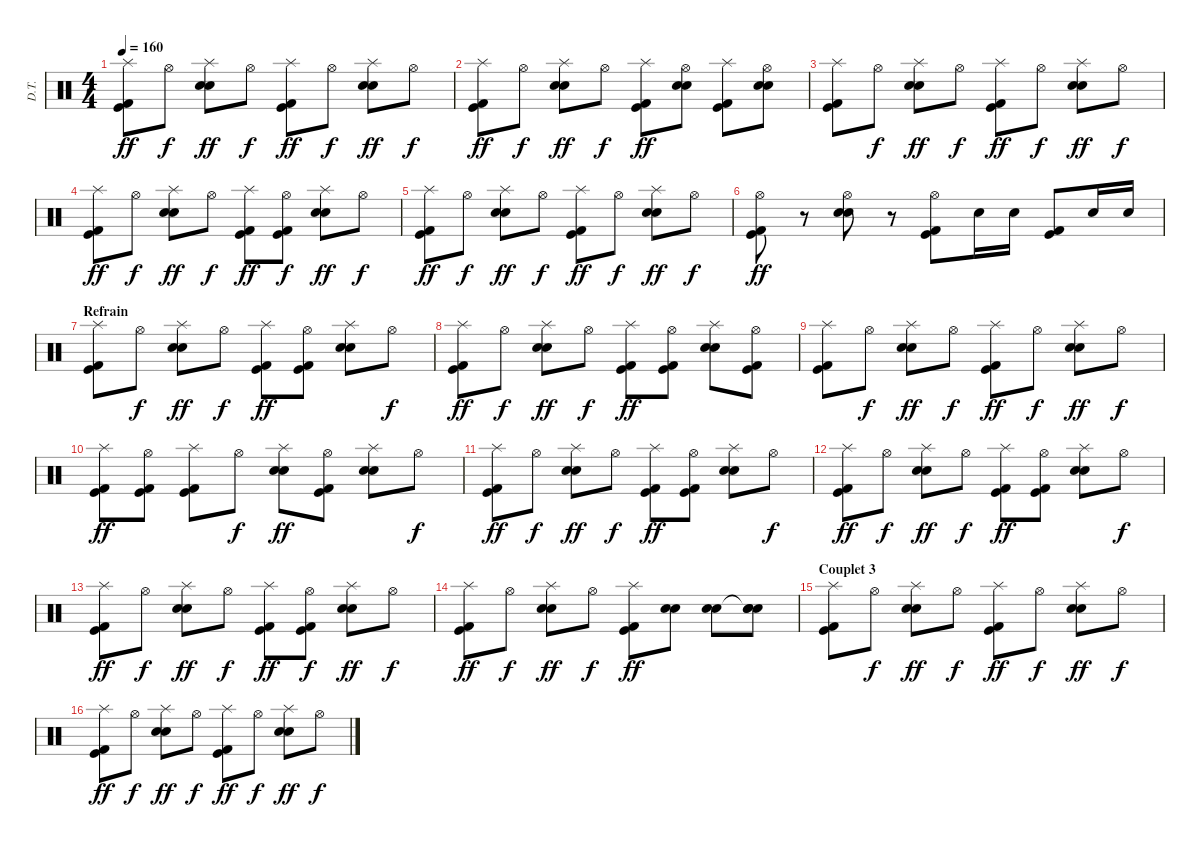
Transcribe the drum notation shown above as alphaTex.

\track ("D.T." "D.T.") {instrument percussion}
\staff {score}
\articulation defaults
\ts (4 4)
\tempo 160
\clef neutral
\ks c
("Splash (hit)" "Kick (hit)" "Kick (hit) 2").8{dy ff} "Hi-Hat (open)".8{dy f} ("Splash (hit)" "Snare (hit) 2" "Electric Snare (hit)").8{dy ff} "Hi-Hat (open)".8{dy f} ("Splash (hit)" "Kick (hit)" "Kick (hit) 2").8{dy ff} "Hi-Hat (open)".8{dy f} ("Splash (hit)" "Snare (hit) 2" "Electric Snare (hit)").8{dy ff} "Hi-Hat (open)".8{dy f} |
("Splash (hit)" "Kick (hit)" "Kick (hit) 2").8{dy ff} "Hi-Hat (open)".8{dy f} ("Splash (hit)" "Snare (hit) 2" "Electric Snare (hit)").8{dy ff} "Hi-Hat (open)".8{dy f} ("Splash (hit)" "Kick (hit)" "Kick (hit) 2").8{dy ff} ("Hi-Hat (open)" "Snare (hit) 2" "Electric Snare (hit)").8 ("Splash (hit)" "Kick (hit)" "Kick (hit) 2").8 ("Hi-Hat (open)" "Snare (hit) 2" "Electric Snare (hit)").8 |
("Splash (hit)" "Kick (hit)" "Kick (hit) 2").8 "Hi-Hat (open)".8{dy f} ("Splash (hit)" "Snare (hit) 2" "Electric Snare (hit)").8{dy ff} "Hi-Hat (open)".8{dy f} ("Splash (hit)" "Kick (hit)" "Kick (hit) 2").8{dy ff} "Hi-Hat (open)".8{dy f} ("Splash (hit)" "Snare (hit) 2" "Electric Snare (hit)").8{dy ff} "Hi-Hat (open)".8{dy f} |
("Splash (hit)" "Kick (hit)" "Kick (hit) 2").8{dy ff} "Hi-Hat (open)".8{dy f} ("Splash (hit)" "Snare (hit) 2" "Electric Snare (hit)").8{dy ff} "Hi-Hat (open)".8{dy f} ("Splash (hit)" "Kick (hit)" "Kick (hit) 2").8{dy ff} ("Hi-Hat (open)" "Kick (hit)" "Kick (hit) 2").8{dy f} ("Splash (hit)" "Snare (hit) 2" "Electric Snare (hit)").8{dy ff} "Hi-Hat (open)".8{dy f} |
("Splash (hit)" "Kick (hit)" "Kick (hit) 2").8{dy ff} "Hi-Hat (open)".8{dy f} ("Splash (hit)" "Snare (hit) 2" "Electric Snare (hit)").8{dy ff} "Hi-Hat (open)".8{dy f} ("Splash (hit)" "Kick (hit)" "Kick (hit) 2").8{dy ff} "Hi-Hat (open)".8{dy f} ("Splash (hit)" "Snare (hit) 2" "Electric Snare (hit)").8{dy ff} "Hi-Hat (open)".8{dy f} |
("Hi-Hat (open)" "Kick (hit)" "Kick (hit) 2").8{dy ff} r.8 ("Hi-Hat (open)" "Snare (hit) 2" "Electric Snare (hit)").8 r.8 ("Hi-Hat (open)" "Kick (hit)" "Kick (hit) 2").8 "Electric Snare (hit)".16 "Electric Snare (hit)".16 ("Kick (hit)" "Kick (hit) 2").8 "Electric Snare (hit)".16 "Electric Snare (hit)".16 |
\section ("" "Refrain")
("Splash (hit)" "Kick (hit)" "Kick (hit) 2").8 "Hi-Hat (open)".8{dy f} ("Splash (hit)" "Snare (hit) 2" "Electric Snare (hit)").8{dy ff} "Hi-Hat (open)".8{dy f} ("Splash (hit)" "Kick (hit)" "Kick (hit) 2").8{dy ff} ("Hi-Hat (open)" "Kick (hit)" "Kick (hit) 2").8 ("Splash (hit)" "Snare (hit) 2" "Electric Snare (hit)").8 "Hi-Hat (open)".8{dy f} |
("Splash (hit)" "Kick (hit)" "Kick (hit) 2").8{dy ff} "Hi-Hat (open)".8{dy f} ("Splash (hit)" "Snare (hit) 2" "Electric Snare (hit)").8{dy ff} "Hi-Hat (open)".8{dy f} ("Splash (hit)" "Kick (hit)" "Kick (hit) 2").8{dy ff} ("Hi-Hat (open)" "Kick (hit)" "Kick (hit) 2").8 ("Splash (hit)" "Snare (hit) 2" "Electric Snare (hit)").8 ("Hi-Hat (open)" "Kick (hit)" "Kick (hit) 2").8 |
("Splash (hit)" "Kick (hit)" "Kick (hit) 2").8 "Hi-Hat (open)".8{dy f} ("Splash (hit)" "Snare (hit) 2" "Electric Snare (hit)").8{dy ff} "Hi-Hat (open)".8{dy f} ("Splash (hit)" "Kick (hit)" "Kick (hit) 2").8{dy ff} "Hi-Hat (open)".8{dy f} ("Splash (hit)" "Snare (hit) 2" "Electric Snare (hit)").8{dy ff} "Hi-Hat (open)".8{dy f} |
("Splash (hit)" "Kick (hit)" "Kick (hit) 2").8{dy ff} ("Hi-Hat (open)" "Kick (hit)" "Kick (hit) 2").8 ("Splash (hit)" "Kick (hit)" "Kick (hit) 2").8 "Hi-Hat (open)".8{dy f} ("Splash (hit)" "Snare (hit) 2" "Electric Snare (hit)").8{dy ff} ("Hi-Hat (open)" "Kick (hit)" "Kick (hit) 2").8 ("Splash (hit)" "Snare (hit) 2" "Electric Snare (hit)").8 "Hi-Hat (open)".8{dy f} |
("Splash (hit)" "Kick (hit)" "Kick (hit) 2").8{dy ff} "Hi-Hat (open)".8{dy f} ("Splash (hit)" "Snare (hit) 2" "Electric Snare (hit)").8{dy ff} "Hi-Hat (open)".8{dy f} ("Splash (hit)" "Kick (hit)" "Kick (hit) 2").8{dy ff} ("Hi-Hat (open)" "Kick (hit)" "Kick (hit) 2").8 ("Splash (hit)" "Snare (hit) 2" "Electric Snare (hit)").8 "Hi-Hat (open)".8{dy f} |
("Splash (hit)" "Kick (hit)" "Kick (hit) 2").8{dy ff} "Hi-Hat (open)".8{dy f} ("Splash (hit)" "Snare (hit) 2" "Electric Snare (hit)").8{dy ff} "Hi-Hat (open)".8{dy f} ("Splash (hit)" "Kick (hit)" "Kick (hit) 2").8{dy ff} ("Hi-Hat (open)" "Kick (hit)" "Kick (hit) 2").8 ("Splash (hit)" "Snare (hit) 2" "Electric Snare (hit)").8 "Hi-Hat (open)".8{dy f} |
("Splash (hit)" "Kick (hit)" "Kick (hit) 2").8{dy ff} "Hi-Hat (open)".8{dy f} ("Splash (hit)" "Snare (hit) 2" "Electric Snare (hit)").8{dy ff} "Hi-Hat (open)".8{dy f} ("Splash (hit)" "Kick (hit)" "Kick (hit) 2").8{dy ff} ("Hi-Hat (open)" "Kick (hit)" "Kick (hit) 2").8{dy f} ("Splash (hit)" "Snare (hit) 2" "Electric Snare (hit)").8{dy ff} "Hi-Hat (open)".8{dy f} |
("Splash (hit)" "Kick (hit)" "Kick (hit) 2").8{dy ff} "Hi-Hat (open)".8{dy f} ("Splash (hit)" "Snare (hit) 2" "Electric Snare (hit)").8{dy ff} "Hi-Hat (open)".8{dy f} ("Splash (hit)" "Kick (hit)" "Kick (hit) 2").8{dy ff} ("Snare (hit) 2" "Electric Snare (hit)").8 ("Snare (hit) 2" "Electric Snare (hit)").8 ("Snare (hit)"{t} "Snare (hit) 2" "Electric Snare (hit)").8 |
\section ("" "Couplet 3")
("Splash (hit)" "Kick (hit)" "Kick (hit) 2").8 "Hi-Hat (open)".8{dy f} ("Splash (hit)" "Snare (hit) 2" "Electric Snare (hit)").8{dy ff} "Hi-Hat (open)".8{dy f} ("Splash (hit)" "Kick (hit)" "Kick (hit) 2").8{dy ff} "Hi-Hat (open)".8{dy f} ("Splash (hit)" "Snare (hit) 2" "Electric Snare (hit)").8{dy ff} "Hi-Hat (open)".8{dy f} |
("Splash (hit)" "Kick (hit)" "Kick (hit) 2").8{dy ff} "Hi-Hat (open)".8{dy f} ("Splash (hit)" "Snare (hit) 2" "Electric Snare (hit)").8{dy ff} "Hi-Hat (open)".8{dy f} ("Splash (hit)" "Kick (hit)" "Kick (hit) 2").8{dy ff} "Hi-Hat (open)".8{dy f} ("Splash (hit)" "Snare (hit) 2" "Electric Snare (hit)").8{dy ff} "Hi-Hat (open)".8{dy f}
